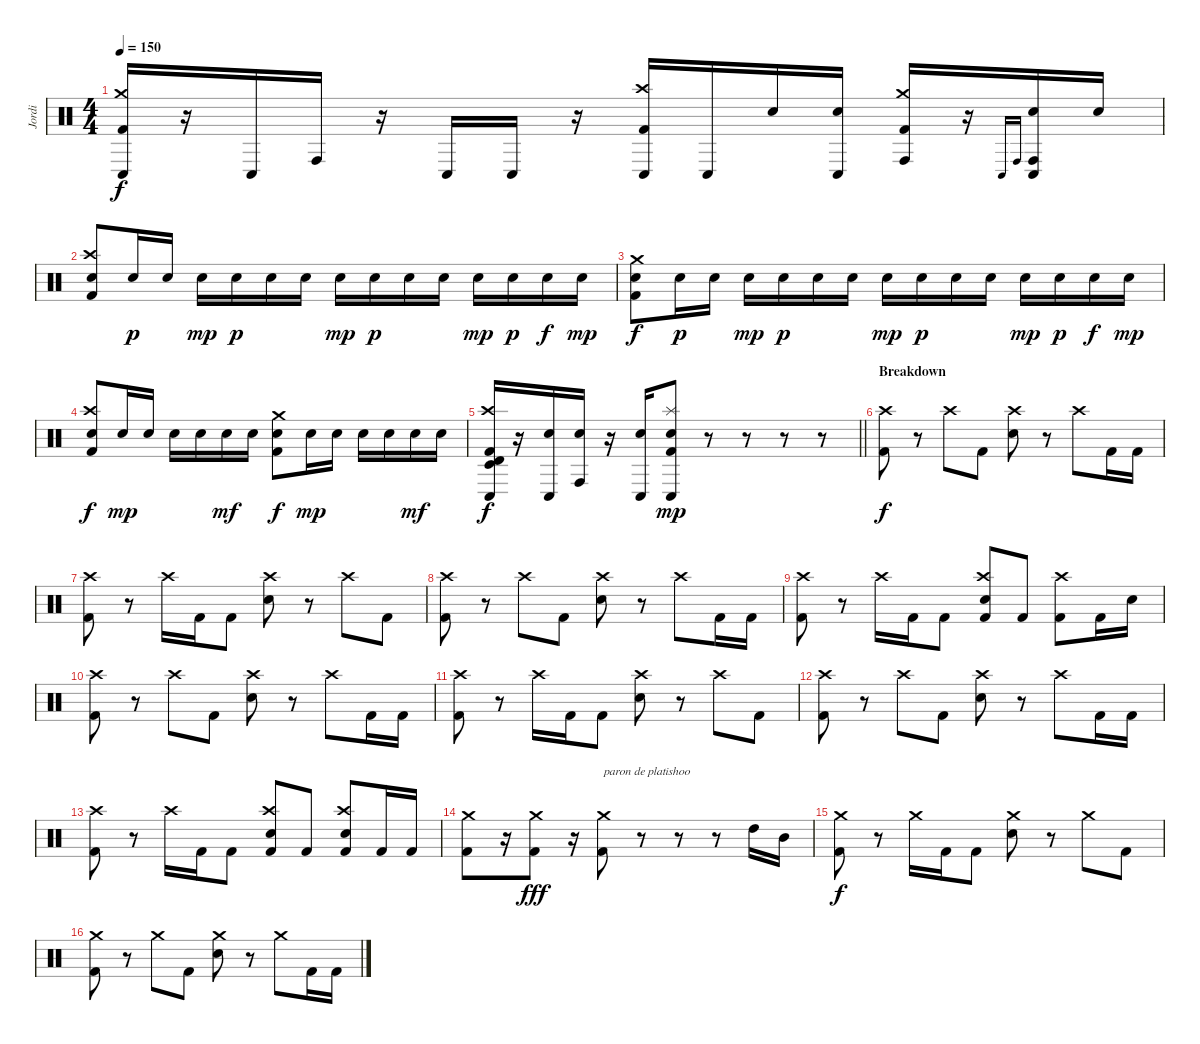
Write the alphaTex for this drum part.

\track ("Jordi" "Jordi") {instrument percussion}
\staff {score}
\articulation defaults
\ts (4 4)
\tempo 150
\clef neutral
\ks c
("Crash medium (hit)" "Conga low (hit)" "Kick (hit) 2").16{dy f} r.16 "Conga low (hit)".16 "Conga high (hit)".16 r.16 "Conga low (hit)".16 "Conga low (hit)".16 r.16 ("Crash high (hit)" "Conga low (hit)" "Kick (hit) 2").16 "Conga low (hit)".16 "Snare (hit) 2".16 ("Conga low (hit)" "Snare (hit) 2").16 ("Crash medium (hit)" "Conga high (hit)" "Kick (hit) 2").16 r.16 "Conga low (hit)".16{gr onbeat} "Conga high (hit)".16{gr onbeat} ("Conga low (hit)" "Conga high (hit)" "Snare (hit) 2").16 "Snare (hit) 2".16 |
("Crash high (hit)" "Snare (hit) 2" "Kick (hit) 2").8 "Snare (hit) 2".16{dy p} "Snare (hit) 2".16 "Snare (hit) 2".16{dy mp} "Snare (hit) 2".16{dy p} "Snare (hit) 2".16 "Snare (hit) 2".16 "Snare (hit) 2".16{dy mp} "Snare (hit) 2".16{dy p} "Snare (hit) 2".16 "Snare (hit) 2".16 "Snare (hit) 2".16{dy mp} "Snare (hit) 2".16{dy p} "Snare (hit) 2".16{dy f} "Snare (hit) 2".16{dy mp} |
("Crash medium (hit)" "Snare (hit) 2" "Kick (hit) 2").8{dy f} "Snare (hit) 2".16{dy p} "Snare (hit) 2".16 "Snare (hit) 2".16{dy mp} "Snare (hit) 2".16{dy p} "Snare (hit) 2".16 "Snare (hit) 2".16 "Snare (hit) 2".16{dy mp} "Snare (hit) 2".16{dy p} "Snare (hit) 2".16 "Snare (hit) 2".16 "Snare (hit) 2".16{dy mp} "Snare (hit) 2".16{dy p} "Snare (hit) 2".16{dy f} "Snare (hit) 2".16{dy mp} |
("Crash high (hit)" "Snare (hit) 2" "Kick (hit) 2").8{dy f} "Snare (hit) 2".16{dy mp} "Snare (hit) 2".16 "Snare (hit) 2".16 "Snare (hit) 2".16 "Snare (hit) 2".16{dy mf} "Snare (hit) 2".16 ("Crash medium (hit)" "Snare (hit) 2" "Kick (hit) 2").8{dy f} "Snare (hit) 2".16{dy mp} "Snare (hit) 2".16 "Snare (hit) 2".16 "Snare (hit) 2".16 "Snare (hit) 2".16{dy mf} "Snare (hit) 2".16 |
\barLineRight lightlight
("Crash high (hit)" "Conga low (hit)" "Timbale high (hit)" "Timbale low (hit)" "Kick (hit) 2").16{dy f} r.16 ("Conga low (hit)" "Snare (hit) 2").16 ("Conga high (hit)" "Snare (hit) 2").16 r.16 ("Conga low (hit)" "Snare (hit) 2").16 ("Splash (hit)" "Conga low (hit)" "Snare (hit) 2" "Kick (hit) 2").8{dy mp} r.8 r.8 r.8 r.8 |
\section ("" "Breakdown")
("Crash high (hit)" "Kick (hit) 2").8{dy f} r.8 "Crash high (hit)".8 "Kick (hit) 2".8 ("Crash high (hit)" "Snare (hit) 2").8 r.8 "Crash high (hit)".8 "Kick (hit) 2".16 "Kick (hit) 2".16 |
("Crash high (hit)" "Kick (hit) 2").8 r.8 "Crash high (hit)".16 "Kick (hit) 2".16 "Kick (hit) 2".8 ("Crash high (hit)" "Snare (hit) 2").8 r.8 "Crash high (hit)".8 "Kick (hit) 2".8 |
("Crash high (hit)" "Kick (hit) 2").8 r.8 "Crash high (hit)".8 "Kick (hit) 2".8 ("Crash high (hit)" "Snare (hit) 2").8 r.8 "Crash high (hit)".8 "Kick (hit) 2".16 "Kick (hit) 2".16 |
("Crash high (hit)" "Kick (hit) 2").8 r.8 "Crash high (hit)".16 "Kick (hit) 2".16 "Kick (hit) 2".8 ("Crash high (hit)" "Snare (hit) 2" "Kick (hit) 2").8 "Kick (hit) 2".8 ("Crash high (hit)" "Kick (hit) 2").8 "Kick (hit) 2".16 "Snare (hit) 2".16 |
("Crash high (hit)" "Kick (hit) 2").8 r.8 "Crash high (hit)".8 "Kick (hit) 2".8 ("Crash high (hit)" "Snare (hit) 2").8 r.8 "Crash high (hit)".8 "Kick (hit) 2".16 "Kick (hit) 2".16 |
("Crash high (hit)" "Kick (hit) 2").8 r.8 "Crash high (hit)".16 "Kick (hit) 2".16 "Kick (hit) 2".8 ("Crash high (hit)" "Snare (hit) 2").8 r.8 "Crash high (hit)".8 "Kick (hit) 2".8 |
("Crash high (hit)" "Kick (hit) 2").8 r.8 "Crash high (hit)".8 "Kick (hit) 2".8 ("Crash high (hit)" "Snare (hit) 2").8 r.8 "Crash high (hit)".8 "Kick (hit) 2".16 "Kick (hit) 2".16 |
("Crash high (hit)" "Kick (hit) 2").8 r.8 "Crash high (hit)".16 "Kick (hit) 2".16 "Kick (hit) 2".8 ("Crash high (hit)" "Snare (hit) 2" "Kick (hit) 2").8 "Kick (hit) 2".8 ("Crash high (hit)" "Snare (hit) 2" "Kick (hit) 2").8 "Kick (hit) 2".16 "Kick (hit) 2".16 |
("Crash medium (hit)" "Kick (hit) 2").8 r.16 ("Crash medium (hit)" "Kick (hit) 2").8{dy fff} r.16 ("Crash medium (hit)" "Kick (hit) 2").8{txt "paron de platishoo"} r.8 r.8 r.8 "High Tom (hit)".16 "Mid Tom (hit)".16 |
("Crash medium (hit)" "Kick (hit) 2").8{dy f} r.8 "Crash medium (hit)".16 "Kick (hit) 2".16 "Kick (hit) 2".8 ("Crash medium (hit)" "Snare (hit) 2").8 r.8 "Crash medium (hit)".8 "Kick (hit) 2".8 |
("Crash medium (hit)" "Kick (hit) 2").8 r.8 "Crash medium (hit)".8 "Kick (hit) 2".8 ("Crash medium (hit)" "Snare (hit) 2").8 r.8 "Crash medium (hit)".8 "Kick (hit) 2".16 "Kick (hit) 2".16
